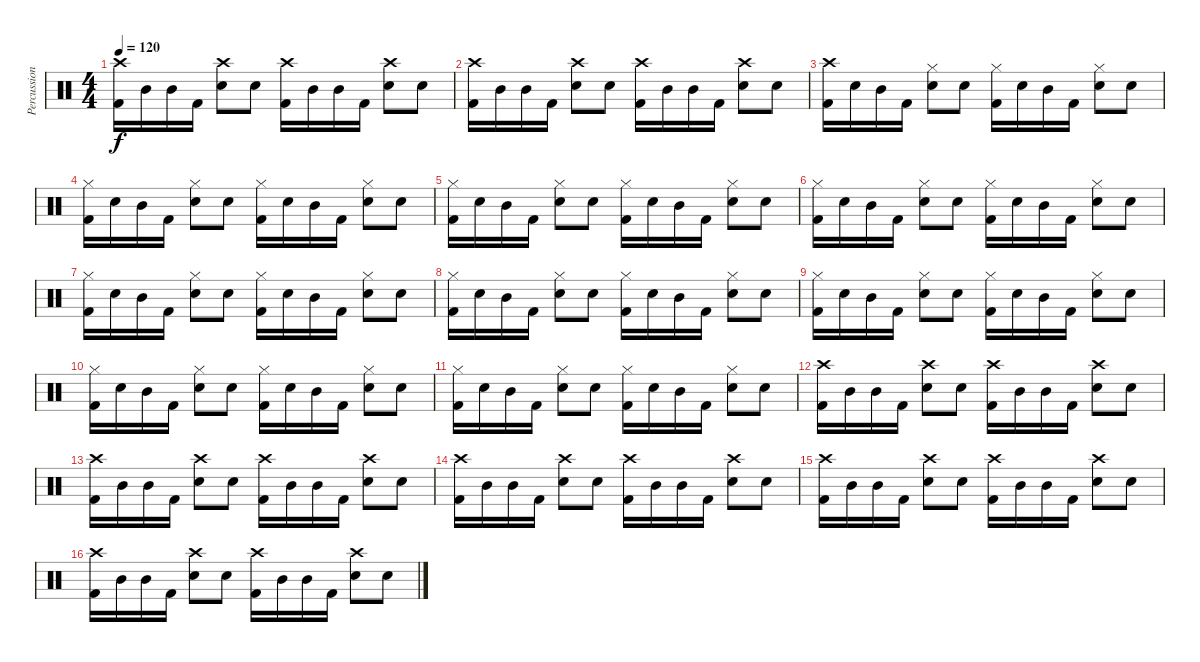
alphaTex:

\track ("Percussions" "Percussion") {instrument percussion}
\staff {score}
\articulation defaults
\ts (4 4)
\tempo 120
\clef neutral
\ks c
("Kick (hit) 2" "Crash high (hit)").16{dy f} "Mid Tom (hit)".16 "Mid Tom (hit)".16 "Kick (hit) 2".16 ("Electric Snare (hit)" "Crash high (hit)").8 "Electric Snare (hit)".8 ("Kick (hit) 2" "Crash high (hit)").16 "Mid Tom (hit)".16 "Mid Tom (hit)".16 "Kick (hit) 2".16 ("Electric Snare (hit)" "Crash high (hit)").8 "Electric Snare (hit)".8 |
("Kick (hit) 2" "Crash high (hit)").16 "Mid Tom (hit)".16 "Mid Tom (hit)".16 "Kick (hit) 2".16 ("Electric Snare (hit)" "Crash high (hit)").8 "Electric Snare (hit)".8 ("Kick (hit) 2" "Crash high (hit)").16 "Mid Tom (hit)".16 "Mid Tom (hit)".16 "Kick (hit) 2".16 ("Electric Snare (hit)" "Crash high (hit)").8 "Electric Snare (hit)".8 |
("Kick (hit) 2" "Crash high (hit)").16 "Electric Snare (hit)".16 "Mid Tom (hit)".16 "Kick (hit) 2".16 ("Electric Snare (hit)" "Hi-Hat (closed)").8 "Electric Snare (hit)".8 ("Kick (hit) 2" "Hi-Hat (closed)").16 "Electric Snare (hit)".16 "Mid Tom (hit)".16 "Kick (hit) 2".16 ("Electric Snare (hit)" "Hi-Hat (closed)").8 "Electric Snare (hit)".8 |
("Kick (hit) 2" "Hi-Hat (closed)").16 "Electric Snare (hit)".16 "Mid Tom (hit)".16 "Kick (hit) 2".16 ("Electric Snare (hit)" "Hi-Hat (closed)").8 "Electric Snare (hit)".8 ("Kick (hit) 2" "Hi-Hat (closed)").16 "Electric Snare (hit)".16 "Mid Tom (hit)".16 "Kick (hit) 2".16 ("Electric Snare (hit)" "Hi-Hat (closed)").8 "Electric Snare (hit)".8 |
("Kick (hit) 2" "Hi-Hat (closed)").16 "Electric Snare (hit)".16 "Mid Tom (hit)".16 "Kick (hit) 2".16 ("Electric Snare (hit)" "Hi-Hat (closed)").8 "Electric Snare (hit)".8 ("Kick (hit) 2" "Hi-Hat (closed)").16 "Electric Snare (hit)".16 "Mid Tom (hit)".16 "Kick (hit) 2".16 ("Electric Snare (hit)" "Hi-Hat (closed)").8 "Electric Snare (hit)".8 |
("Kick (hit) 2" "Hi-Hat (closed)").16 "Electric Snare (hit)".16 "Mid Tom (hit)".16 "Kick (hit) 2".16 ("Electric Snare (hit)" "Hi-Hat (closed)").8 "Electric Snare (hit)".8 ("Kick (hit) 2" "Hi-Hat (closed)").16 "Electric Snare (hit)".16 "Mid Tom (hit)".16 "Kick (hit) 2".16 ("Electric Snare (hit)" "Hi-Hat (closed)").8 "Electric Snare (hit)".8 |
("Kick (hit) 2" "Hi-Hat (closed)").16 "Electric Snare (hit)".16 "Mid Tom (hit)".16 "Kick (hit) 2".16 ("Electric Snare (hit)" "Hi-Hat (closed)").8 "Electric Snare (hit)".8 ("Kick (hit) 2" "Hi-Hat (closed)").16 "Electric Snare (hit)".16 "Mid Tom (hit)".16 "Kick (hit) 2".16 ("Electric Snare (hit)" "Hi-Hat (closed)").8 "Electric Snare (hit)".8 |
("Kick (hit) 2" "Hi-Hat (closed)").16 "Electric Snare (hit)".16 "Mid Tom (hit)".16 "Kick (hit) 2".16 ("Electric Snare (hit)" "Hi-Hat (closed)").8 "Electric Snare (hit)".8 ("Kick (hit) 2" "Hi-Hat (closed)").16 "Electric Snare (hit)".16 "Mid Tom (hit)".16 "Kick (hit) 2".16 ("Electric Snare (hit)" "Hi-Hat (closed)").8 "Electric Snare (hit)".8 |
("Kick (hit) 2" "Hi-Hat (closed)").16 "Electric Snare (hit)".16 "Mid Tom (hit)".16 "Kick (hit) 2".16 ("Electric Snare (hit)" "Hi-Hat (closed)").8 "Electric Snare (hit)".8 ("Kick (hit) 2" "Hi-Hat (closed)").16 "Electric Snare (hit)".16 "Mid Tom (hit)".16 "Kick (hit) 2".16 ("Electric Snare (hit)" "Hi-Hat (closed)").8 "Electric Snare (hit)".8 |
("Kick (hit) 2" "Hi-Hat (closed)").16 "Electric Snare (hit)".16 "Mid Tom (hit)".16 "Kick (hit) 2".16 ("Electric Snare (hit)" "Hi-Hat (closed)").8 "Electric Snare (hit)".8 ("Kick (hit) 2" "Hi-Hat (closed)").16 "Electric Snare (hit)".16 "Mid Tom (hit)".16 "Kick (hit) 2".16 ("Electric Snare (hit)" "Hi-Hat (closed)").8 "Electric Snare (hit)".8 |
("Kick (hit) 2" "Hi-Hat (closed)").16 "Electric Snare (hit)".16 "Mid Tom (hit)".16 "Kick (hit) 2".16 ("Electric Snare (hit)" "Hi-Hat (closed)").8 "Electric Snare (hit)".8 ("Kick (hit) 2" "Hi-Hat (closed)").16 "Electric Snare (hit)".16 "Mid Tom (hit)".16 "Kick (hit) 2".16 ("Electric Snare (hit)" "Hi-Hat (closed)").8 "Electric Snare (hit)".8 |
("Kick (hit) 2" "Crash high (hit)").16 "Mid Tom (hit)".16 "Mid Tom (hit)".16 "Kick (hit) 2".16 ("Electric Snare (hit)" "Crash high (hit)").8 "Electric Snare (hit)".8 ("Kick (hit) 2" "Crash high (hit)").16 "Mid Tom (hit)".16 "Mid Tom (hit)".16 "Kick (hit) 2".16 ("Electric Snare (hit)" "Crash high (hit)").8 "Electric Snare (hit)".8 |
("Kick (hit) 2" "Crash high (hit)").16 "Mid Tom (hit)".16 "Mid Tom (hit)".16 "Kick (hit) 2".16 ("Electric Snare (hit)" "Crash high (hit)").8 "Electric Snare (hit)".8 ("Kick (hit) 2" "Crash high (hit)").16 "Mid Tom (hit)".16 "Mid Tom (hit)".16 "Kick (hit) 2".16 ("Electric Snare (hit)" "Crash high (hit)").8 "Electric Snare (hit)".8 |
("Kick (hit) 2" "Crash high (hit)").16 "Mid Tom (hit)".16 "Mid Tom (hit)".16 "Kick (hit) 2".16 ("Electric Snare (hit)" "Crash high (hit)").8 "Electric Snare (hit)".8 ("Kick (hit) 2" "Crash high (hit)").16 "Mid Tom (hit)".16 "Mid Tom (hit)".16 "Kick (hit) 2".16 ("Electric Snare (hit)" "Crash high (hit)").8 "Electric Snare (hit)".8 |
("Kick (hit) 2" "Crash high (hit)").16 "Mid Tom (hit)".16 "Mid Tom (hit)".16 "Kick (hit) 2".16 ("Electric Snare (hit)" "Crash high (hit)").8 "Electric Snare (hit)".8 ("Kick (hit) 2" "Crash high (hit)").16 "Mid Tom (hit)".16 "Mid Tom (hit)".16 "Kick (hit) 2".16 ("Electric Snare (hit)" "Crash high (hit)").8 "Electric Snare (hit)".8 |
("Kick (hit) 2" "Crash high (hit)").16 "Mid Tom (hit)".16 "Mid Tom (hit)".16 "Kick (hit) 2".16 ("Electric Snare (hit)" "Crash high (hit)").8 "Electric Snare (hit)".8 ("Kick (hit) 2" "Crash high (hit)").16 "Mid Tom (hit)".16 "Mid Tom (hit)".16 "Kick (hit) 2".16 ("Electric Snare (hit)" "Crash high (hit)").8 "Electric Snare (hit)".8
